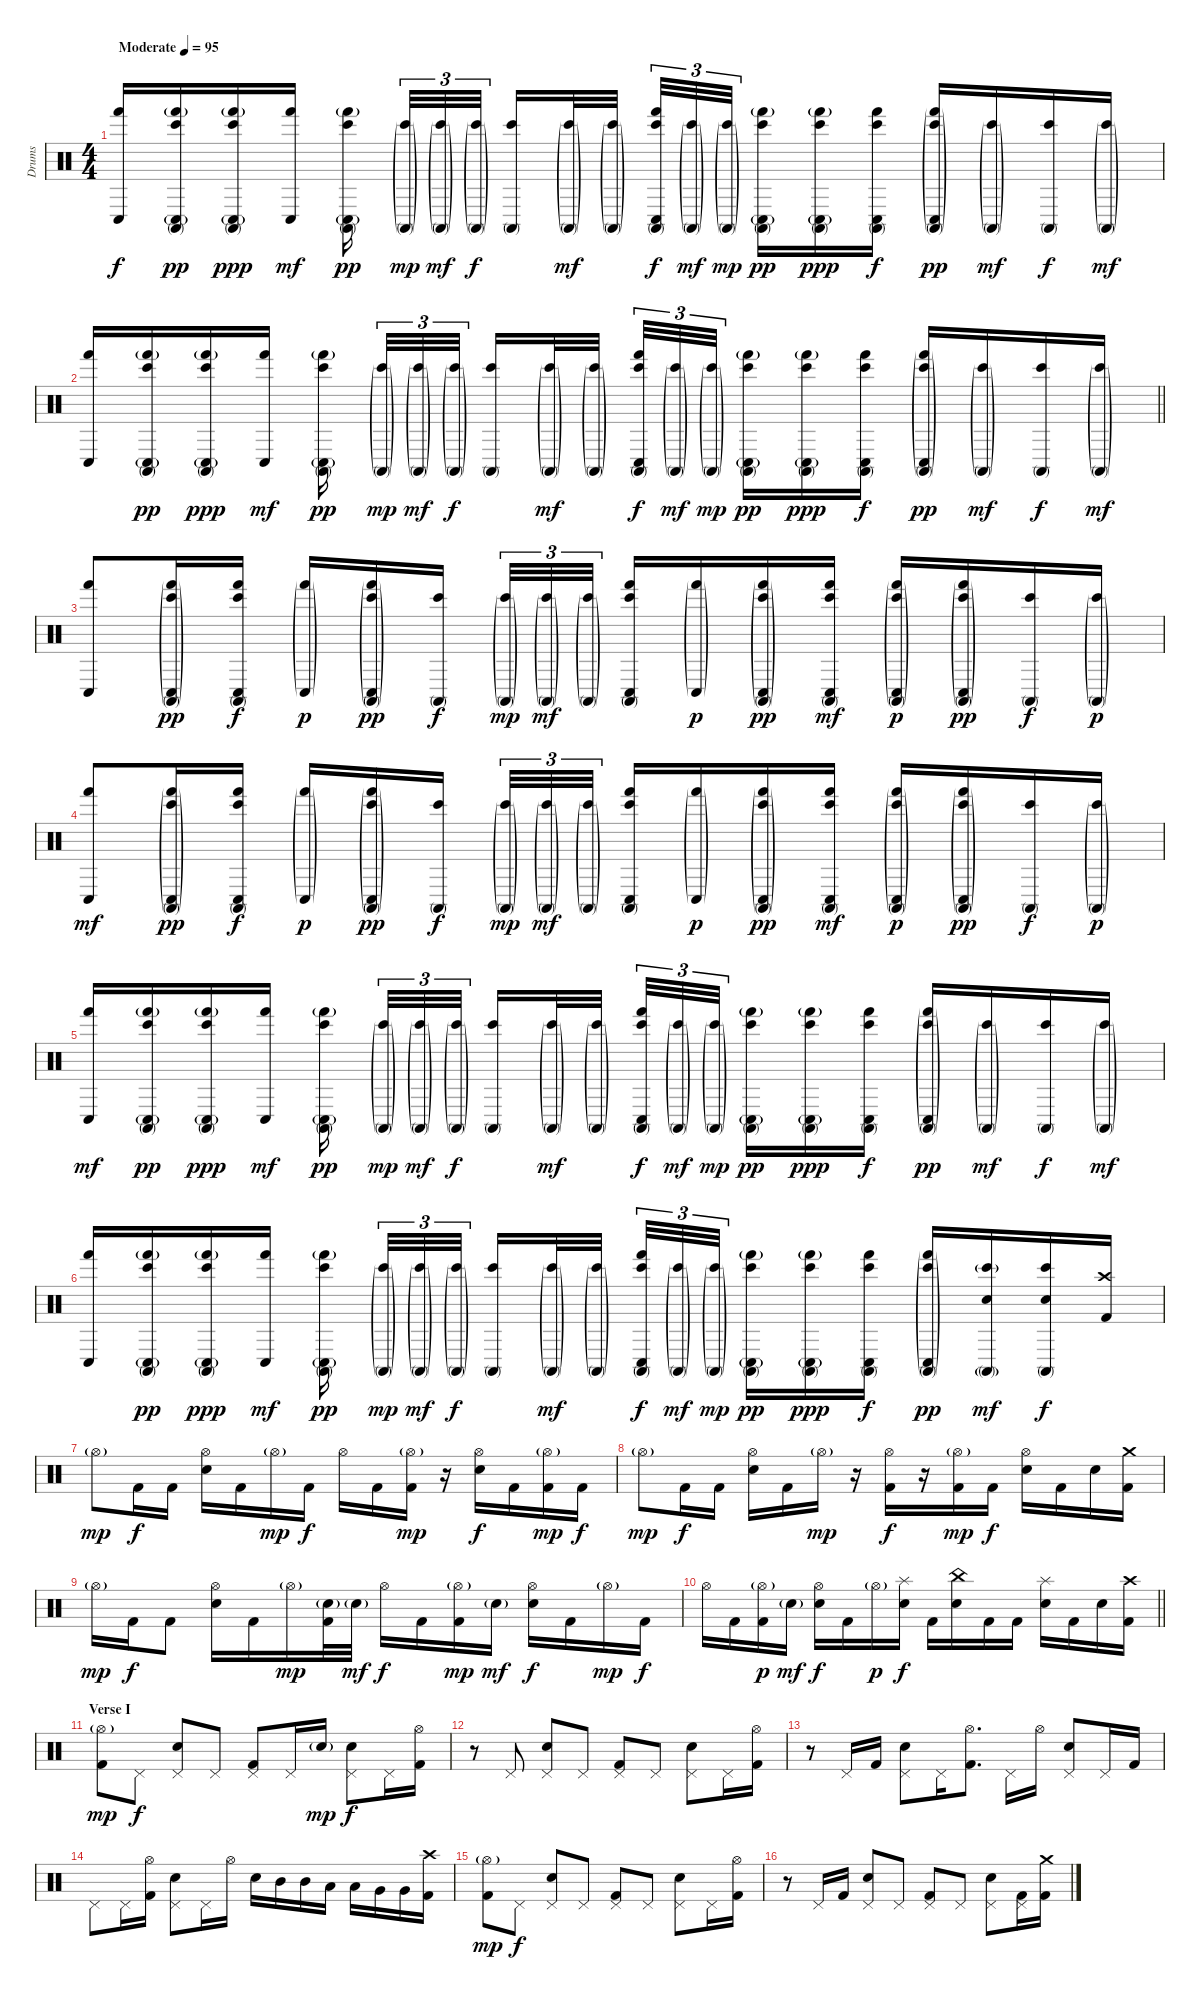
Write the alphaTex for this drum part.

\track ("Drums" "Drums") {instrument percussion}
\staff {score}
\articulation defaults
\ts (4 4)
\tempo (95 "Moderate")
\clef neutral
\ks c
("Hand (hit)" "Conga low (hit)").16{dy f} ("Conga high (mute)" "Bongo High (hit)" "Hand (hit)"{g} "Conga low (hit)"{g}).16{dy pp} ("Conga high (mute)" "Bongo High (hit)" "Hand (hit)"{g} "Conga low (hit)"{g}).16{dy ppp} ("Hand (hit)" "Conga low (hit)").16{dy mf} ("Conga high (mute)" "Bongo High (hit)" "Hand (hit)"{g} "Conga low (hit)"{g}).16{dy pp beam splitsecondary} ("Conga high (mute)"{g} "Bongo High (hit)"{g}).32{tu (3 2) dy mp} ("Conga high (mute)"{g} "Bongo High (hit)"{g}).32{tu (3 2) dy mf} ("Conga high (mute)"{g} "Bongo High (hit)"{g}).32{tu (3 2) dy f beam splitsecondary} ("Conga high (mute)" "Bongo High (hit)").16 ("Conga high (mute)"{g} "Bongo High (hit)"{g}).32{dy mf} ("Conga high (mute)"{g} "Bongo High (hit)"{g}).32 ("Conga high (mute)" "Bongo High (hit)" "Hand (hit)" "Conga low (hit)").32{tu (3 2) dy f} ("Conga high (mute)"{g} "Bongo High (hit)"{g}).32{tu (3 2) dy mf} ("Conga high (mute)"{g} "Bongo High (hit)"{g}).32{tu (3 2) dy mp beam splitsecondary} ("Conga high (mute)" "Bongo High (hit)" "Hand (hit)"{g} "Conga low (hit)"{g}).16{dy pp} ("Conga high (mute)" "Bongo High (hit)" "Hand (hit)"{g} "Conga low (hit)"{g}).16{dy ppp} ("Conga high (mute)" "Bongo High (hit)" "Hand (hit)" "Conga low (hit)").16{dy f} ("Conga high (mute)"{g} "Bongo High (hit)"{g} "Hand (hit)"{g} "Conga low (hit)"{g}).16{dy pp} ("Conga high (mute)"{g} "Bongo High (hit)"{g}).16{dy mf} ("Conga high (mute)" "Bongo High (hit)").16{dy f} ("Conga high (mute)"{g} "Bongo High (hit)"{g}).16{dy mf} |
\barLineRight lightlight
("Hand (hit)" "Conga low (hit)").16 ("Conga high (mute)" "Bongo High (hit)" "Hand (hit)"{g} "Conga low (hit)"{g}).16{dy pp} ("Conga high (mute)" "Bongo High (hit)" "Hand (hit)"{g} "Conga low (hit)"{g}).16{dy ppp} ("Hand (hit)" "Conga low (hit)").16{dy mf} ("Conga high (mute)" "Bongo High (hit)" "Hand (hit)"{g} "Conga low (hit)"{g}).16{dy pp beam splitsecondary} ("Conga high (mute)"{g} "Bongo High (hit)"{g}).32{tu (3 2) dy mp} ("Conga high (mute)"{g} "Bongo High (hit)"{g}).32{tu (3 2) dy mf} ("Conga high (mute)"{g} "Bongo High (hit)"{g}).32{tu (3 2) dy f beam splitsecondary} ("Conga high (mute)" "Bongo High (hit)").16 ("Conga high (mute)"{g} "Bongo High (hit)"{g}).32{dy mf} ("Conga high (mute)"{g} "Bongo High (hit)"{g}).32 ("Conga high (mute)" "Bongo High (hit)" "Hand (hit)" "Conga low (hit)").32{tu (3 2) dy f} ("Conga high (mute)"{g} "Bongo High (hit)"{g}).32{tu (3 2) dy mf} ("Conga high (mute)"{g} "Bongo High (hit)"{g}).32{tu (3 2) dy mp beam splitsecondary} ("Conga high (mute)" "Bongo High (hit)" "Hand (hit)"{g} "Conga low (hit)"{g}).16{dy pp} ("Conga high (mute)" "Bongo High (hit)" "Hand (hit)"{g} "Conga low (hit)"{g}).16{dy ppp} ("Conga high (mute)" "Bongo High (hit)" "Hand (hit)" "Conga low (hit)").16{dy f} ("Conga high (mute)"{g} "Bongo High (hit)"{g} "Hand (hit)"{g} "Conga low (hit)"{g}).16{dy pp} ("Conga high (mute)"{g} "Bongo High (hit)"{g}).16{dy mf} ("Conga high (mute)" "Bongo High (hit)").16{dy f} ("Conga high (mute)"{g} "Bongo High (hit)"{g}).16{dy mf} |
("Hand (hit)" "Conga low (hit)").8 ("Conga high (mute)"{g} "Bongo High (hit)"{g} "Hand (hit)"{g} "Conga low (hit)"{g}).16{dy pp} ("Conga high (mute)" "Bongo High (hit)" "Hand (hit)" "Conga low (hit)").16{dy f} ("Hand (hit)"{g} "Conga low (hit)"{g}).16{dy p} ("Conga high (mute)"{g} "Bongo High (hit)"{g} "Hand (hit)"{g} "Conga low (hit)"{g}).16{dy pp} ("Conga high (mute)" "Bongo High (hit)").16{dy f beam splitsecondary} ("Conga high (mute)"{g} "Bongo High (hit)"{g}).32{tu (3 2) dy mp} ("Conga high (mute)"{g} "Bongo High (hit)"{g}).32{tu (3 2) dy mf} ("Conga high (mute)"{g} "Bongo High (hit)"{g}).32{tu (3 2)} ("Conga high (mute)" "Bongo High (hit)" "Hand (hit)" "Conga low (hit)").16 ("Hand (hit)"{g} "Conga low (hit)"{g}).16{dy p} ("Conga high (mute)"{g} "Bongo High (hit)"{g} "Hand (hit)"{g} "Conga low (hit)"{g}).16{dy pp} ("Conga high (mute)" "Bongo High (hit)" "Hand (hit)" "Conga low (hit)").16{dy mf} ("Conga high (mute)"{g} "Bongo High (hit)"{g} "Hand (hit)"{g} "Conga low (hit)"{g}).16{dy p} ("Conga high (mute)"{g} "Bongo High (hit)"{g} "Hand (hit)"{g} "Conga low (hit)"{g}).16{dy pp} ("Conga high (mute)" "Bongo High (hit)").16{dy f} ("Conga high (mute)"{g} "Bongo High (hit)"{g}).16{dy p} |
("Hand (hit)" "Conga low (hit)").8{dy mf} ("Conga high (mute)"{g} "Bongo High (hit)"{g} "Hand (hit)"{g} "Conga low (hit)"{g}).16{dy pp} ("Conga high (mute)" "Bongo High (hit)" "Hand (hit)" "Conga low (hit)").16{dy f} ("Hand (hit)"{g} "Conga low (hit)"{g}).16{dy p} ("Conga high (mute)"{g} "Bongo High (hit)"{g} "Hand (hit)"{g} "Conga low (hit)"{g}).16{dy pp} ("Conga high (mute)" "Bongo High (hit)").16{dy f beam splitsecondary} ("Conga high (mute)"{g} "Bongo High (hit)"{g}).32{tu (3 2) dy mp} ("Conga high (mute)"{g} "Bongo High (hit)"{g}).32{tu (3 2) dy mf} ("Conga high (mute)"{g} "Bongo High (hit)"{g}).32{tu (3 2)} ("Conga high (mute)" "Bongo High (hit)" "Hand (hit)" "Conga low (hit)").16 ("Hand (hit)"{g} "Conga low (hit)"{g}).16{dy p} ("Conga high (mute)"{g} "Bongo High (hit)"{g} "Hand (hit)"{g} "Conga low (hit)"{g}).16{dy pp} ("Conga high (mute)" "Bongo High (hit)" "Hand (hit)" "Conga low (hit)").16{dy mf} ("Conga high (mute)"{g} "Bongo High (hit)"{g} "Hand (hit)"{g} "Conga low (hit)"{g}).16{dy p} ("Conga high (mute)"{g} "Bongo High (hit)"{g} "Hand (hit)"{g} "Conga low (hit)"{g}).16{dy pp} ("Conga high (mute)" "Bongo High (hit)").16{dy f} ("Conga high (mute)"{g} "Bongo High (hit)"{g}).16{dy p} |
("Hand (hit)" "Conga low (hit)").16{dy mf} ("Conga high (mute)" "Bongo High (hit)" "Hand (hit)"{g} "Conga low (hit)"{g}).16{dy pp} ("Conga high (mute)" "Bongo High (hit)" "Hand (hit)"{g} "Conga low (hit)"{g}).16{dy ppp} ("Hand (hit)" "Conga low (hit)").16{dy mf} ("Conga high (mute)" "Bongo High (hit)" "Hand (hit)"{g} "Conga low (hit)"{g}).16{dy pp beam splitsecondary} ("Conga high (mute)"{g} "Bongo High (hit)"{g}).32{tu (3 2) dy mp} ("Conga high (mute)"{g} "Bongo High (hit)"{g}).32{tu (3 2) dy mf} ("Conga high (mute)"{g} "Bongo High (hit)"{g}).32{tu (3 2) dy f beam splitsecondary} ("Conga high (mute)" "Bongo High (hit)").16 ("Conga high (mute)"{g} "Bongo High (hit)"{g}).32{dy mf} ("Conga high (mute)"{g} "Bongo High (hit)"{g}).32 ("Conga high (mute)" "Bongo High (hit)" "Hand (hit)" "Conga low (hit)").32{tu (3 2) dy f} ("Conga high (mute)"{g} "Bongo High (hit)"{g}).32{tu (3 2) dy mf} ("Conga high (mute)"{g} "Bongo High (hit)"{g}).32{tu (3 2) dy mp beam splitsecondary} ("Conga high (mute)" "Bongo High (hit)" "Hand (hit)"{g} "Conga low (hit)"{g}).16{dy pp} ("Conga high (mute)" "Bongo High (hit)" "Hand (hit)"{g} "Conga low (hit)"{g}).16{dy ppp} ("Conga high (mute)" "Bongo High (hit)" "Hand (hit)" "Conga low (hit)").16{dy f} ("Conga high (mute)"{g} "Bongo High (hit)"{g} "Hand (hit)"{g} "Conga low (hit)"{g}).16{dy pp} ("Conga high (mute)"{g} "Bongo High (hit)"{g}).16{dy mf} ("Conga high (mute)" "Bongo High (hit)").16{dy f} ("Conga high (mute)"{g} "Bongo High (hit)"{g}).16{dy mf} |
("Hand (hit)" "Conga low (hit)").16 ("Conga high (mute)" "Bongo High (hit)" "Hand (hit)"{g} "Conga low (hit)"{g}).16{dy pp} ("Conga high (mute)" "Bongo High (hit)" "Hand (hit)"{g} "Conga low (hit)"{g}).16{dy ppp} ("Hand (hit)" "Conga low (hit)").16{dy mf} ("Conga high (mute)" "Bongo High (hit)" "Hand (hit)"{g} "Conga low (hit)"{g}).16{dy pp beam splitsecondary} ("Conga high (mute)"{g} "Bongo High (hit)"{g}).32{tu (3 2) dy mp} ("Conga high (mute)"{g} "Bongo High (hit)"{g}).32{tu (3 2) dy mf} ("Conga high (mute)"{g} "Bongo High (hit)"{g}).32{tu (3 2) dy f beam splitsecondary} ("Conga high (mute)" "Bongo High (hit)").16 ("Conga high (mute)"{g} "Bongo High (hit)"{g}).32{dy mf} ("Conga high (mute)"{g} "Bongo High (hit)"{g}).32 ("Conga high (mute)" "Bongo High (hit)" "Hand (hit)" "Conga low (hit)").32{tu (3 2) dy f} ("Conga high (mute)"{g} "Bongo High (hit)"{g}).32{tu (3 2) dy mf} ("Conga high (mute)"{g} "Bongo High (hit)"{g}).32{tu (3 2) dy mp beam splitsecondary} ("Conga high (mute)" "Bongo High (hit)" "Hand (hit)"{g} "Conga low (hit)"{g}).16{dy pp} ("Conga high (mute)" "Bongo High (hit)" "Hand (hit)"{g} "Conga low (hit)"{g}).16{dy ppp} ("Conga high (mute)" "Bongo High (hit)" "Hand (hit)" "Conga low (hit)").16{dy f} ("Conga high (mute)"{g} "Bongo High (hit)"{g} "Hand (hit)"{g} "Conga low (hit)"{g}).16{dy pp} ("Conga high (mute)"{g} "Bongo High (hit)"{g} "Electric Snare (hit)").16{dy mf} ("Conga high (mute)" "Bongo High (hit)" "Electric Snare (hit)").16{dy f} ("Crash high (hit)" "Kick (hit) 2").16 |
"Hi-Hat (open)"{g}.8{dy mp} "Kick (hit) 2".16{dy f} "Kick (hit) 2".16 ("Hi-Hat (open)" "Electric Snare (hit)").16 "Kick (hit) 2".16 "Hi-Hat (open)"{g}.16{dy mp} "Kick (hit) 2".16{dy f} "Hi-Hat (open)".16 "Kick (hit) 2".16 ("Hi-Hat (open)"{g} "Kick (hit) 2").16{dy mp} r.16 ("Hi-Hat (open)" "Electric Snare (hit)").16{dy f} "Kick (hit) 2".16 ("Hi-Hat (open)"{g} "Kick (hit) 2").16{dy mp} "Kick (hit) 2".16{dy f} |
"Hi-Hat (open)"{g}.8{dy mp} "Kick (hit) 2".16{dy f} "Kick (hit) 2".16 ("Hi-Hat (open)" "Electric Snare (hit)").16 "Kick (hit) 2".16 "Hi-Hat (open)"{g}.16{dy mp} r.16 ("Hi-Hat (open)" "Kick (hit) 2").16{dy f} r.16 ("Hi-Hat (open)"{g} "Kick (hit) 2").16{dy mp} "Kick (hit) 2".16{dy f} ("Hi-Hat (open)" "Electric Snare (hit)").16 "Kick (hit) 2".16 "Electric Snare (hit)".16 ("Crash medium (hit)" "Kick (hit) 2").16 |
"Hi-Hat (open)"{g}.16{dy mp} "Kick (hit) 2".16{dy f} "Kick (hit) 2".8 ("Hi-Hat (open)" "Electric Snare (hit)").16 "Kick (hit) 2".16 "Hi-Hat (open)"{g}.16{dy mp} ("Electric Snare (hit)"{g} "Kick (hit) 2").32 "Electric Snare (hit)"{g}.32{dy mf} "Hi-Hat (open)".16{dy f} "Kick (hit) 2".16 ("Hi-Hat (open)"{g} "Kick (hit) 2").16{dy mp} "Electric Snare (hit)"{g}.16{dy mf} ("Hi-Hat (open)" "Electric Snare (hit)").16{dy f} "Kick (hit) 2".16 "Hi-Hat (open)"{g}.16{dy mp} "Kick (hit) 2".16{dy f} |
\barLineRight lightlight "Hi-Hat (open)".16 "Kick (hit) 2".16
("Hi-Hat (open)"{g} "Kick (hit) 2").16{dy p} "Electric Snare (hit)"{g}.16{dy mf} ("Hi-Hat (open)" "Electric Snare (hit)").16{dy f} "Kick (hit) 2".16 "Hi-Hat (open)"{g}.16{dy p} ("Splash (hit)" "Electric Snare (hit)").16{dy f} "Kick (hit) 2".16 ("China (hit)" "Electric Snare (hit)").16 "Kick (hit) 2".16 "Kick (hit) 2".16 ("Splash (hit)" "Electric Snare (hit)").16 "Kick (hit) 2".16 "Electric Snare (hit)".16 ("Crash high (hit)" "Kick (hit) 2").16 |
\section ("" "Verse I")
("Hi-Hat (open)"{g} "Kick (hit) 2").8{dy mp} "Pedal Hi-Hat (hit)".8{dy f} ("Pedal Hi-Hat (hit)" "Electric Snare (hit)").8 "Pedal Hi-Hat (hit)".8 ("Pedal Hi-Hat (hit)" "Kick (hit) 2").8 "Pedal Hi-Hat (hit)".16 "Electric Snare (hit)"{g}.16{dy mp} ("Pedal Hi-Hat (hit)" "Electric Snare (hit)").8{dy f} "Pedal Hi-Hat (hit)".16 ("Hi-Hat (open)" "Kick (hit) 2").16 |
r.8 "Pedal Hi-Hat (hit)".8 ("Pedal Hi-Hat (hit)" "Electric Snare (hit)").8 "Pedal Hi-Hat (hit)".8 ("Pedal Hi-Hat (hit)" "Kick (hit) 2").8 "Pedal Hi-Hat (hit)".8 ("Pedal Hi-Hat (hit)" "Electric Snare (hit)").8 "Pedal Hi-Hat (hit)".16 ("Hi-Hat (open)" "Kick (hit) 2").16 |
r.8 "Pedal Hi-Hat (hit)".16 "Kick (hit) 2".16 ("Pedal Hi-Hat (hit)" "Electric Snare (hit)").8 "Pedal Hi-Hat (hit)".16 ("Hi-Hat (open)" "Kick (hit) 2").8{d} "Pedal Hi-Hat (hit)".16 "Hi-Hat (open)".16 ("Pedal Hi-Hat (hit)" "Electric Snare (hit)").8 "Pedal Hi-Hat (hit)".16 "Kick (hit) 2".16 |
"Pedal Hi-Hat (hit)".8 "Pedal Hi-Hat (hit)".16 ("Hi-Hat (open)" "Kick (hit) 2").16 ("Pedal Hi-Hat (hit)" "Electric Snare (hit)").8 "Pedal Hi-Hat (hit)".16 "Hi-Hat (open)".16 "Electric Snare (hit)".16 "Mid Tom (hit)".16 "Mid Tom (hit)".16 "Low Tom (hit)".16 "Low Tom (hit)".16 "Very Low Tom (hit)".16 "Very Low Tom (hit)".16 ("Crash high (hit)" "Kick (hit) 2").16 |
("Hi-Hat (open)"{g} "Kick (hit) 2").8{dy mp} "Pedal Hi-Hat (hit)".8{dy f} ("Pedal Hi-Hat (hit)" "Electric Snare (hit)").8 "Pedal Hi-Hat (hit)".8 ("Pedal Hi-Hat (hit)" "Kick (hit) 2").8 "Pedal Hi-Hat (hit)".8 ("Pedal Hi-Hat (hit)" "Electric Snare (hit)").8 "Pedal Hi-Hat (hit)".16 ("Hi-Hat (open)" "Kick (hit) 2").16 |
r.8 "Pedal Hi-Hat (hit)".16 "Kick (hit) 2".16 ("Pedal Hi-Hat (hit)" "Electric Snare (hit)").8 "Pedal Hi-Hat (hit)".8 ("Pedal Hi-Hat (hit)" "Kick (hit) 2").8 "Pedal Hi-Hat (hit)".8 ("Pedal Hi-Hat (hit)" "Electric Snare (hit)").8 ("Pedal Hi-Hat (hit)" "Kick (hit) 2").16 ("Crash medium (hit)" "Kick (hit) 2").16
